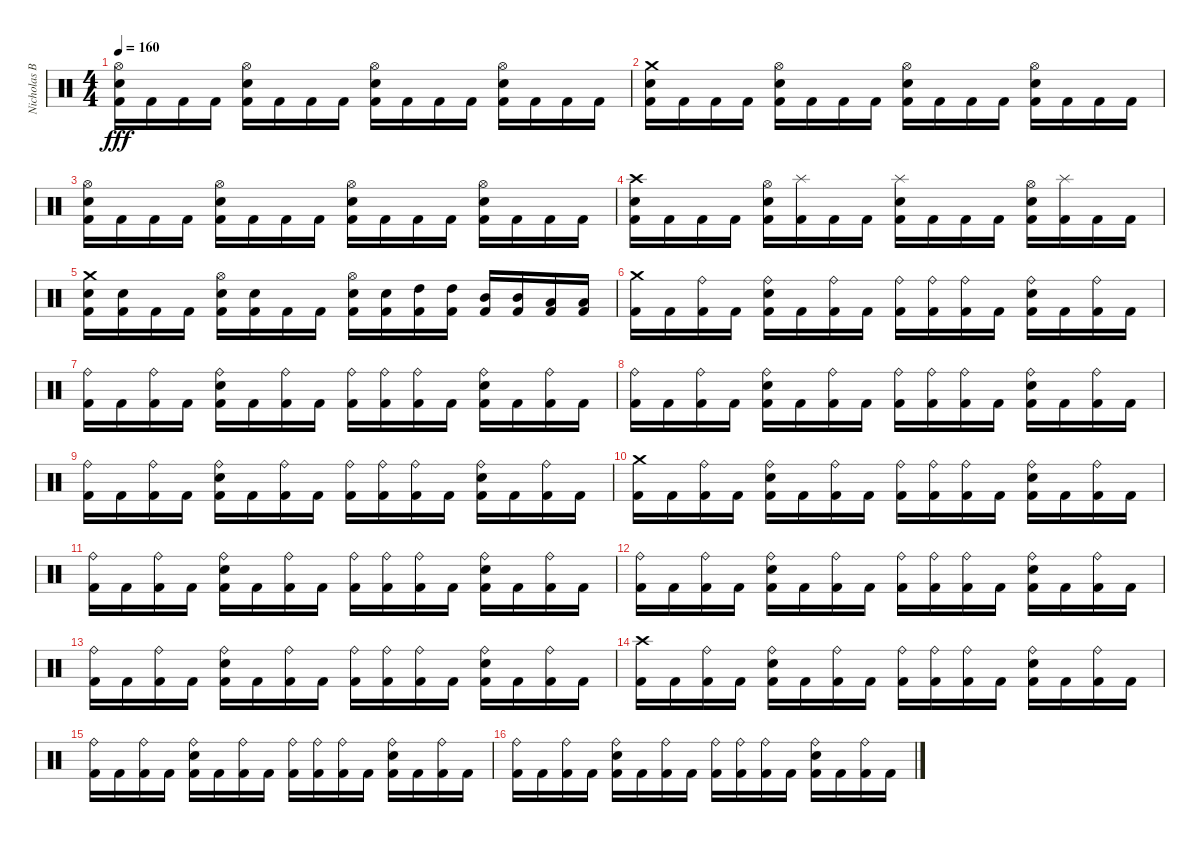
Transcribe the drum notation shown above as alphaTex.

\track ("Nicholas Barker" "Nicholas B") {instrument percussion}
\staff {score}
\articulation defaults
\ts (4 4)
\tempo 160
\clef neutral
\ks c
("Hi-Hat (open)" "Snare (hit) 2" "Kick (hit) 2").16{dy fff} "Kick (hit) 2".16 "Kick (hit) 2".16 "Kick (hit) 2".16 ("Hi-Hat (open)" "Snare (hit) 2" "Kick (hit) 2").16 "Kick (hit) 2".16 "Kick (hit) 2".16 "Kick (hit) 2".16 ("Hi-Hat (open)" "Snare (hit) 2" "Kick (hit) 2").16 "Kick (hit) 2".16 "Kick (hit) 2".16 "Kick (hit) 2".16 ("Hi-Hat (open)" "Snare (hit) 2" "Kick (hit) 2").16 "Kick (hit) 2".16 "Kick (hit) 2".16 "Kick (hit) 2".16 |
("Crash medium (hit)" "Snare (hit) 2" "Kick (hit) 2").16 "Kick (hit) 2".16 "Kick (hit) 2".16 "Kick (hit) 2".16 ("Hi-Hat (open)" "Snare (hit) 2" "Kick (hit) 2").16 "Kick (hit) 2".16 "Kick (hit) 2".16 "Kick (hit) 2".16 ("Hi-Hat (open)" "Snare (hit) 2" "Kick (hit) 2").16 "Kick (hit) 2".16 "Kick (hit) 2".16 "Kick (hit) 2".16 ("Hi-Hat (open)" "Snare (hit) 2" "Kick (hit) 2").16 "Kick (hit) 2".16 "Kick (hit) 2".16 "Kick (hit) 2".16 |
("Hi-Hat (open)" "Snare (hit) 2" "Kick (hit) 2").16 "Kick (hit) 2".16 "Kick (hit) 2".16 "Kick (hit) 2".16 ("Hi-Hat (open)" "Snare (hit) 2" "Kick (hit) 2").16 "Kick (hit) 2".16 "Kick (hit) 2".16 "Kick (hit) 2".16 ("Hi-Hat (open)" "Snare (hit) 2" "Kick (hit) 2").16 "Kick (hit) 2".16 "Kick (hit) 2".16 "Kick (hit) 2".16 ("Hi-Hat (open)" "Snare (hit) 2" "Kick (hit) 2").16 "Kick (hit) 2".16 "Kick (hit) 2".16 "Kick (hit) 2".16 |
("Crash high (hit)" "Snare (hit) 2" "Kick (hit) 2").16 "Kick (hit) 2".16 "Kick (hit) 2".16 "Kick (hit) 2".16 ("Hi-Hat (open)" "Snare (hit) 2" "Kick (hit) 2").16 ("Splash (hit)" "Kick (hit) 2").16 "Kick (hit) 2".16 "Kick (hit) 2".16 ("Splash (hit)" "Snare (hit) 2" "Kick (hit) 2").16 "Kick (hit) 2".16 "Kick (hit) 2".16 "Kick (hit) 2".16 ("Hi-Hat (open)" "Snare (hit) 2" "Kick (hit) 2").16 ("Splash (hit)" "Kick (hit) 2").16 "Kick (hit) 2".16 "Kick (hit) 2".16 |
("Crash medium (hit)" "Snare (hit) 2" "Kick (hit) 2").16 ("Snare (hit) 2" "Kick (hit) 2").16 "Kick (hit) 2".16 "Kick (hit) 2".16 ("Hi-Hat (open)" "Snare (hit) 2" "Kick (hit) 2").16 ("Snare (hit) 2" "Kick (hit) 2").16 "Kick (hit) 2".16 "Kick (hit) 2".16 ("Hi-Hat (open)" "Snare (hit) 2" "Kick (hit) 2").16 ("Snare (hit) 2" "Kick (hit) 2").16 ("High Tom (hit)" "Kick (hit) 2").16 ("High Tom (hit)" "Kick (hit) 2").16 ("Mid Tom (hit)" "Kick (hit) 2").16 ("Mid Tom (hit)" "Kick (hit) 2").16 ("Low Tom (hit)" "Kick (hit) 2").16 ("Low Tom (hit)" "Kick (hit) 2").16 |
("Crash medium (hit)" "Kick (hit) 2").16 "Kick (hit) 2".16 ("Ride (bell)" "Kick (hit) 2").16 "Kick (hit) 2".16 ("Ride (bell)" "Snare (hit) 2" "Kick (hit) 2").16 "Kick (hit) 2".16 ("Ride (bell)" "Kick (hit) 2").16 "Kick (hit) 2".16 ("Ride (bell)" "Kick (hit) 2").16 ("Ride (bell)" "Kick (hit) 2").16 ("Ride (bell)" "Kick (hit) 2").16 "Kick (hit) 2".16 ("Ride (bell)" "Snare (hit) 2" "Kick (hit) 2").16 "Kick (hit) 2".16 ("Ride (bell)" "Kick (hit) 2").16 "Kick (hit) 2".16 |
("Ride (bell)" "Kick (hit) 2").16 "Kick (hit) 2".16 ("Ride (bell)" "Kick (hit) 2").16 "Kick (hit) 2".16 ("Ride (bell)" "Snare (hit) 2" "Kick (hit) 2").16 "Kick (hit) 2".16 ("Ride (bell)" "Kick (hit) 2").16 "Kick (hit) 2".16 ("Ride (bell)" "Kick (hit) 2").16 ("Ride (bell)" "Kick (hit) 2").16 ("Ride (bell)" "Kick (hit) 2").16 "Kick (hit) 2".16 ("Ride (bell)" "Snare (hit) 2" "Kick (hit) 2").16 "Kick (hit) 2".16 ("Ride (bell)" "Kick (hit) 2").16 "Kick (hit) 2".16 |
("Ride (bell)" "Kick (hit) 2").16 "Kick (hit) 2".16 ("Ride (bell)" "Kick (hit) 2").16 "Kick (hit) 2".16 ("Ride (bell)" "Snare (hit) 2" "Kick (hit) 2").16 "Kick (hit) 2".16 ("Ride (bell)" "Kick (hit) 2").16 "Kick (hit) 2".16 ("Ride (bell)" "Kick (hit) 2").16 ("Ride (bell)" "Kick (hit) 2").16 ("Ride (bell)" "Kick (hit) 2").16 "Kick (hit) 2".16 ("Ride (bell)" "Snare (hit) 2" "Kick (hit) 2").16 "Kick (hit) 2".16 ("Ride (bell)" "Kick (hit) 2").16 "Kick (hit) 2".16 |
("Ride (bell)" "Kick (hit) 2").16 "Kick (hit) 2".16 ("Ride (bell)" "Kick (hit) 2").16 "Kick (hit) 2".16 ("Ride (bell)" "Snare (hit) 2" "Kick (hit) 2").16 "Kick (hit) 2".16 ("Ride (bell)" "Kick (hit) 2").16 "Kick (hit) 2".16 ("Ride (bell)" "Kick (hit) 2").16 ("Ride (bell)" "Kick (hit) 2").16 ("Ride (bell)" "Kick (hit) 2").16 "Kick (hit) 2".16 ("Ride (bell)" "Snare (hit) 2" "Kick (hit) 2").16 "Kick (hit) 2".16 ("Ride (bell)" "Kick (hit) 2").16 "Kick (hit) 2".16 |
("Crash medium (hit)" "Kick (hit) 2").16 "Kick (hit) 2".16 ("Ride (bell)" "Kick (hit) 2").16 "Kick (hit) 2".16 ("Ride (bell)" "Snare (hit) 2" "Kick (hit) 2").16 "Kick (hit) 2".16 ("Ride (bell)" "Kick (hit) 2").16 "Kick (hit) 2".16 ("Ride (bell)" "Kick (hit) 2").16 ("Ride (bell)" "Kick (hit) 2").16 ("Ride (bell)" "Kick (hit) 2").16 "Kick (hit) 2".16 ("Ride (bell)" "Snare (hit) 2" "Kick (hit) 2").16 "Kick (hit) 2".16 ("Ride (bell)" "Kick (hit) 2").16 "Kick (hit) 2".16 |
("Ride (bell)" "Kick (hit) 2").16 "Kick (hit) 2".16 ("Ride (bell)" "Kick (hit) 2").16 "Kick (hit) 2".16 ("Ride (bell)" "Snare (hit) 2" "Kick (hit) 2").16 "Kick (hit) 2".16 ("Ride (bell)" "Kick (hit) 2").16 "Kick (hit) 2".16 ("Ride (bell)" "Kick (hit) 2").16 ("Ride (bell)" "Kick (hit) 2").16 ("Ride (bell)" "Kick (hit) 2").16 "Kick (hit) 2".16 ("Ride (bell)" "Snare (hit) 2" "Kick (hit) 2").16 "Kick (hit) 2".16 ("Ride (bell)" "Kick (hit) 2").16 "Kick (hit) 2".16 |
("Ride (bell)" "Kick (hit) 2").16 "Kick (hit) 2".16 ("Ride (bell)" "Kick (hit) 2").16 "Kick (hit) 2".16 ("Ride (bell)" "Snare (hit) 2" "Kick (hit) 2").16 "Kick (hit) 2".16 ("Ride (bell)" "Kick (hit) 2").16 "Kick (hit) 2".16 ("Ride (bell)" "Kick (hit) 2").16 ("Ride (bell)" "Kick (hit) 2").16 ("Ride (bell)" "Kick (hit) 2").16 "Kick (hit) 2".16 ("Ride (bell)" "Snare (hit) 2" "Kick (hit) 2").16 "Kick (hit) 2".16 ("Ride (bell)" "Kick (hit) 2").16 "Kick (hit) 2".16 |
("Ride (bell)" "Kick (hit) 2").16 "Kick (hit) 2".16 ("Ride (bell)" "Kick (hit) 2").16 "Kick (hit) 2".16 ("Ride (bell)" "Snare (hit) 2" "Kick (hit) 2").16 "Kick (hit) 2".16 ("Ride (bell)" "Kick (hit) 2").16 "Kick (hit) 2".16 ("Ride (bell)" "Kick (hit) 2").16 ("Ride (bell)" "Kick (hit) 2").16 ("Ride (bell)" "Kick (hit) 2").16 "Kick (hit) 2".16 ("Ride (bell)" "Snare (hit) 2" "Kick (hit) 2").16 "Kick (hit) 2".16 ("Ride (bell)" "Kick (hit) 2").16 "Kick (hit) 2".16 |
("Crash high (hit)" "Kick (hit) 2").16 "Kick (hit) 2".16 ("Ride (bell)" "Kick (hit) 2").16 "Kick (hit) 2".16 ("Ride (bell)" "Snare (hit) 2" "Kick (hit) 2").16 "Kick (hit) 2".16 ("Ride (bell)" "Kick (hit) 2").16 "Kick (hit) 2".16 ("Ride (bell)" "Kick (hit) 2").16 ("Ride (bell)" "Kick (hit) 2").16 ("Ride (bell)" "Kick (hit) 2").16 "Kick (hit) 2".16 ("Ride (bell)" "Snare (hit) 2" "Kick (hit) 2").16 "Kick (hit) 2".16 ("Ride (bell)" "Kick (hit) 2").16 "Kick (hit) 2".16 |
("Ride (bell)" "Kick (hit) 2").16 "Kick (hit) 2".16 ("Ride (bell)" "Kick (hit) 2").16 "Kick (hit) 2".16 ("Ride (bell)" "Snare (hit) 2" "Kick (hit) 2").16 "Kick (hit) 2".16 ("Ride (bell)" "Kick (hit) 2").16 "Kick (hit) 2".16 ("Ride (bell)" "Kick (hit) 2").16 ("Ride (bell)" "Kick (hit) 2").16 ("Ride (bell)" "Kick (hit) 2").16 "Kick (hit) 2".16 ("Ride (bell)" "Snare (hit) 2" "Kick (hit) 2").16 "Kick (hit) 2".16 ("Ride (bell)" "Kick (hit) 2").16 "Kick (hit) 2".16 |
("Ride (bell)" "Kick (hit) 2").16 "Kick (hit) 2".16 ("Ride (bell)" "Kick (hit) 2").16 "Kick (hit) 2".16 ("Ride (bell)" "Snare (hit) 2" "Kick (hit) 2").16 "Kick (hit) 2".16 ("Ride (bell)" "Kick (hit) 2").16 "Kick (hit) 2".16 ("Ride (bell)" "Kick (hit) 2").16 ("Ride (bell)" "Kick (hit) 2").16 ("Ride (bell)" "Kick (hit) 2").16 "Kick (hit) 2".16 ("Ride (bell)" "Snare (hit) 2" "Kick (hit) 2").16 "Kick (hit) 2".16 ("Ride (bell)" "Kick (hit) 2").16 "Kick (hit) 2".16
